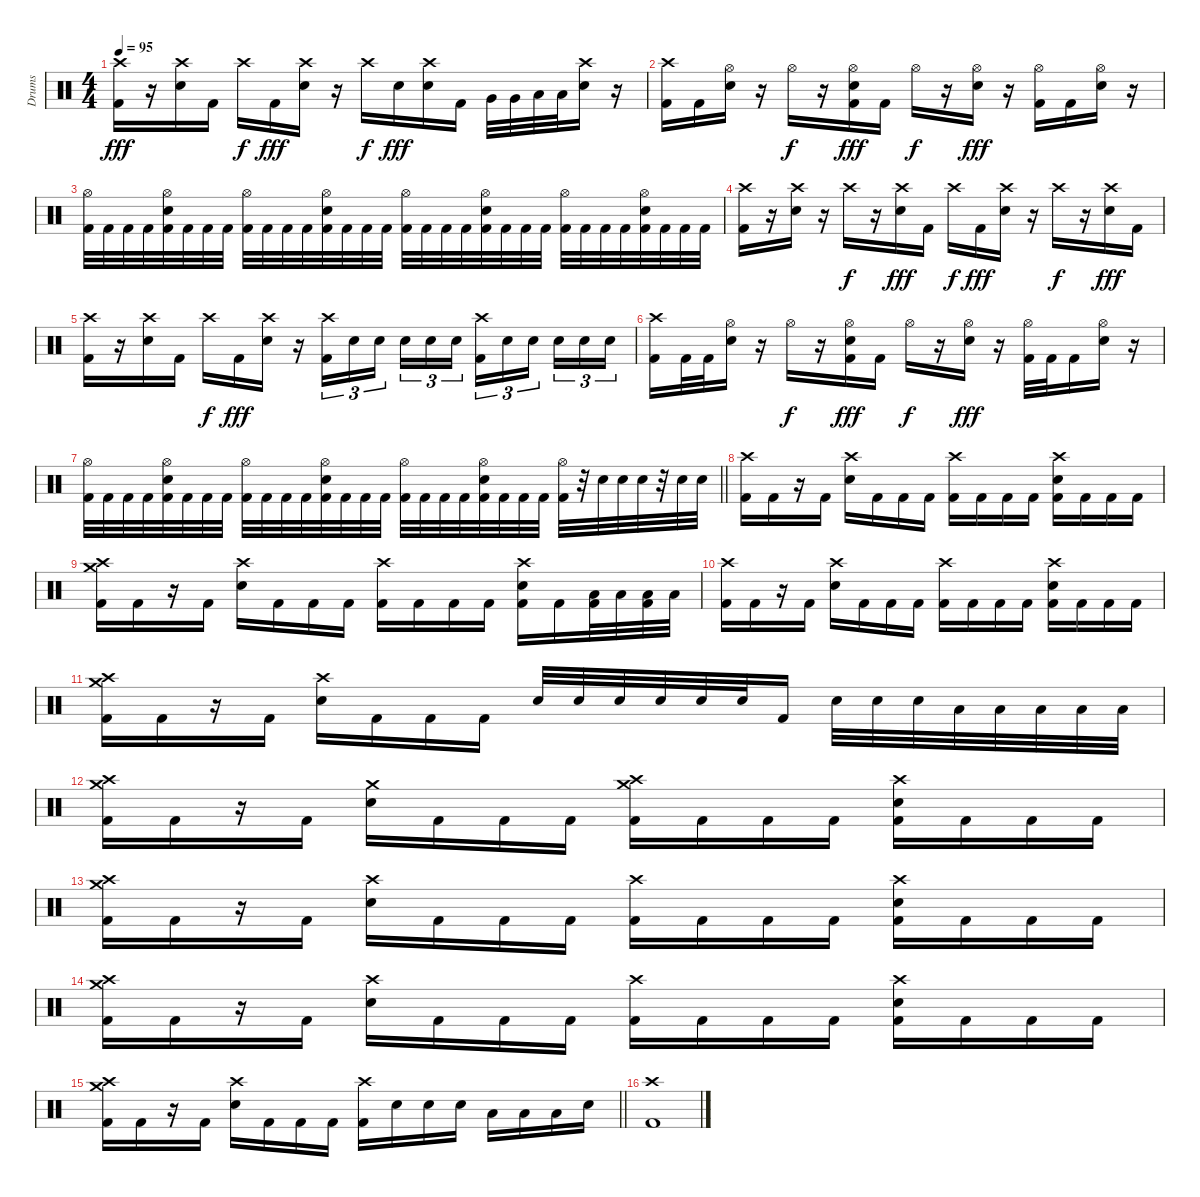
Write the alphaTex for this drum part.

\track ("Drums" "Drums") {instrument percussion}
\staff {score}
\articulation defaults
\ts (4 4)
\tempo 95
\clef neutral
\ks c
("Crash high (hit)" "Kick (hit) 2").16{dy fff} r.16 ("Crash high (hit)" "Electric Snare (hit)").16 "Kick (hit) 2".16 "Crash high (hit)".16{dy f} "Kick (hit) 2".16{dy fff} ("Crash high (hit)" "Electric Snare (hit)").16 r.16 "Crash high (hit)".16{dy f} "Electric Snare (hit)".16{dy fff} ("Crash high (hit)" "Electric Snare (hit)").16 "Kick (hit) 2".16 "Very Low Tom (hit)".32 "Very Low Tom (hit)".32 "Low Floor Tom (hit)".32 "Low Floor Tom (hit)".32 ("Crash high (hit)" "Electric Snare (hit)").16 r.16 |
("Crash high (hit)" "Kick (hit) 2").16 "Kick (hit) 2".16 ("Hi-Hat (open)" "Electric Snare (hit)").16 r.16 "Hi-Hat (open)".16{dy f} r.16 ("Hi-Hat (open)" "Electric Snare (hit)" "Kick (hit) 2").16{dy fff} "Kick (hit) 2".16 "Hi-Hat (open)".16{dy f} r.16 ("Hi-Hat (open)" "Electric Snare (hit)").16{dy fff} r.16 ("Hi-Hat (open)" "Kick (hit) 2").16 "Kick (hit) 2".16 ("Hi-Hat (open)" "Electric Snare (hit)").16 r.16 |
("Hi-Hat (open)" "Kick (hit) 2").32 "Kick (hit) 2".32 "Kick (hit) 2".32 "Kick (hit) 2".32 ("Hi-Hat (open)" "Electric Snare (hit)" "Kick (hit) 2").32 "Kick (hit) 2".32 "Kick (hit) 2".32 "Kick (hit) 2".32 ("Hi-Hat (open)" "Kick (hit) 2").32 "Kick (hit) 2".32 "Kick (hit) 2".32 "Kick (hit) 2".32 ("Hi-Hat (open)" "Electric Snare (hit)" "Kick (hit) 2").32 "Kick (hit) 2".32 "Kick (hit) 2".32 "Kick (hit) 2".32 ("Hi-Hat (open)" "Kick (hit) 2").32 "Kick (hit) 2".32 "Kick (hit) 2".32 "Kick (hit) 2".32 ("Hi-Hat (open)" "Electric Snare (hit)" "Kick (hit) 2").32 "Kick (hit) 2".32 "Kick (hit) 2".32 "Kick (hit) 2".32 ("Hi-Hat (open)" "Kick (hit) 2").32 "Kick (hit) 2".32 "Kick (hit) 2".32 "Kick (hit) 2".32 ("Hi-Hat (open)" "Electric Snare (hit)" "Kick (hit) 2").32 "Kick (hit) 2".32 "Kick (hit) 2".32 "Kick (hit) 2".32 |
("Crash high (hit)" "Kick (hit) 2").16 r.16 ("Crash high (hit)" "Electric Snare (hit)").16 r.16 "Crash high (hit)".16{dy f} r.16 ("Crash high (hit)" "Electric Snare (hit)").16{dy fff} "Kick (hit) 2".16 "Crash high (hit)".16{dy f} "Kick (hit) 2".16{dy fff} ("Crash high (hit)" "Electric Snare (hit)").16 r.16 "Crash high (hit)".16{dy f} r.16 ("Crash high (hit)" "Electric Snare (hit)").16{dy fff} "Kick (hit) 2".16 |
("Crash high (hit)" "Kick (hit) 2").16 r.16 ("Crash high (hit)" "Electric Snare (hit)").16 "Kick (hit) 2".16 "Crash high (hit)".16{dy f} "Kick (hit) 2".16{dy fff} ("Crash high (hit)" "Electric Snare (hit)").16 r.16 ("Crash high (hit)" "Kick (hit) 2").16{tu (3 2)} "Electric Snare (hit)".16{tu (3 2)} "Electric Snare (hit)".16{tu (3 2) beam splitsecondary} "Electric Snare (hit)".16{tu (3 2)} "Electric Snare (hit)".16{tu (3 2)} "Electric Snare (hit)".16{tu (3 2)} ("Crash high (hit)" "Kick (hit) 2").16{tu (3 2)} "Electric Snare (hit)".16{tu (3 2)} "Electric Snare (hit)".16{tu (3 2) beam splitsecondary} "Electric Snare (hit)".16{tu (3 2)} "Electric Snare (hit)".16{tu (3 2)} "Electric Snare (hit)".16{tu (3 2)} |
("Crash high (hit)" "Kick (hit) 2").16 "Kick (hit) 2".32 "Kick (hit) 2".32 ("Hi-Hat (open)" "Electric Snare (hit)").16 r.16 "Hi-Hat (open)".16{dy f} r.16 ("Hi-Hat (open)" "Electric Snare (hit)" "Kick (hit) 2").16{dy fff} "Kick (hit) 2".16 "Hi-Hat (open)".16{dy f} r.16 ("Hi-Hat (open)" "Electric Snare (hit)").16{dy fff} r.16 ("Hi-Hat (open)" "Kick (hit) 2").32 "Kick (hit) 2".32 "Kick (hit) 2".16 ("Hi-Hat (open)" "Electric Snare (hit)").16 r.16 |
\barLineRight lightlight
("Hi-Hat (open)" "Kick (hit) 2").32 "Kick (hit) 2".32 "Kick (hit) 2".32 "Kick (hit) 2".32 ("Hi-Hat (open)" "Electric Snare (hit)" "Kick (hit) 2").32 "Kick (hit) 2".32 "Kick (hit) 2".32 "Kick (hit) 2".32 ("Hi-Hat (open)" "Kick (hit) 2").32 "Kick (hit) 2".32 "Kick (hit) 2".32 "Kick (hit) 2".32 ("Hi-Hat (open)" "Electric Snare (hit)" "Kick (hit) 2").32 "Kick (hit) 2".32 "Kick (hit) 2".32 "Kick (hit) 2".32 ("Hi-Hat (open)" "Kick (hit) 2").32 "Kick (hit) 2".32 "Kick (hit) 2".32 "Kick (hit) 2".32 ("Hi-Hat (open)" "Electric Snare (hit)" "Kick (hit) 2").32 "Kick (hit) 2".32 "Kick (hit) 2".32 "Kick (hit) 2".32 ("Hi-Hat (open)" "Kick (hit) 2").32 r.32 "Electric Snare (hit)".32 "Electric Snare (hit)".32 "Electric Snare (hit)".32 r.32 "Electric Snare (hit)".32 "Electric Snare (hit)".32 |
\section ("" "")
("Crash high (hit)" "Kick (hit) 2").16 "Kick (hit) 2".16 r.16 "Kick (hit) 2".16 ("Crash high (hit)" "Electric Snare (hit)").16 "Kick (hit) 2".16 "Kick (hit) 2".16 "Kick (hit) 2".16 ("Crash high (hit)" "Kick (hit) 2").16 "Kick (hit) 2".16 "Kick (hit) 2".16 "Kick (hit) 2".16 ("Crash high (hit)" "Electric Snare (hit)" "Kick (hit) 2").16 "Kick (hit) 2".16 "Kick (hit) 2".16 "Kick (hit) 2".16 |
("Crash high (hit)" "Crash medium (hit)" "Kick (hit) 2").16 "Kick (hit) 2".16 r.16 "Kick (hit) 2".16 ("Crash high (hit)" "Electric Snare (hit)").16 "Kick (hit) 2".16 "Kick (hit) 2".16 "Kick (hit) 2".16 ("Crash high (hit)" "Kick (hit) 2").16 "Kick (hit) 2".16 "Kick (hit) 2".16 "Kick (hit) 2".16 ("Crash high (hit)" "Electric Snare (hit)" "Kick (hit) 2").16 "Kick (hit) 2".16 ("Low Tom (hit)" "Kick (hit) 2").32 "Low Tom (hit)".32 ("Low Tom (hit)" "Kick (hit) 2").32 "Low Floor Tom (hit)".32 |
("Crash high (hit)" "Kick (hit) 2").16 "Kick (hit) 2".16 r.16 "Kick (hit) 2".16 ("Crash high (hit)" "Electric Snare (hit)").16 "Kick (hit) 2".16 "Kick (hit) 2".16 "Kick (hit) 2".16 ("Crash high (hit)" "Kick (hit) 2").16 "Kick (hit) 2".16 "Kick (hit) 2".16 "Kick (hit) 2".16 ("Crash high (hit)" "Electric Snare (hit)" "Kick (hit) 2").16 "Kick (hit) 2".16 "Kick (hit) 2".16 "Kick (hit) 2".16 |
("Crash high (hit)" "Crash medium (hit)" "Kick (hit) 2").16 "Kick (hit) 2".16 r.16 "Kick (hit) 2".16 ("Crash high (hit)" "Electric Snare (hit)").16 "Kick (hit) 2".16 "Kick (hit) 2".16 "Kick (hit) 2".16 "Electric Snare (hit)".32 "Electric Snare (hit)".32 "Electric Snare (hit)".32 "Electric Snare (hit)".32 "Electric Snare (hit)".32 "Electric Snare (hit)".32 "Kick (hit) 2".16 "Electric Snare (hit)".32 "Electric Snare (hit)".32 "Electric Snare (hit)".32 "Low Tom (hit)".32 "Low Tom (hit)".32 "Low Tom (hit)".32 "Low Floor Tom (hit)".32 "Low Floor Tom (hit)".32 |
("Crash high (hit)" "Crash medium (hit)" "Kick (hit) 2").16 "Kick (hit) 2".16 r.16 "Kick (hit) 2".16 ("Crash medium (hit)" "Electric Snare (hit)").16 "Kick (hit) 2".16 "Kick (hit) 2".16 "Kick (hit) 2".16 ("Crash high (hit)" "Crash medium (hit)" "Kick (hit) 2").16 "Kick (hit) 2".16 "Kick (hit) 2".16 "Kick (hit) 2".16 ("Crash high (hit)" "Electric Snare (hit)" "Kick (hit) 2").16 "Kick (hit) 2".16 "Kick (hit) 2".16 "Kick (hit) 2".16 |
("Crash high (hit)" "Crash medium (hit)" "Kick (hit) 2").16 "Kick (hit) 2".16 r.16 "Kick (hit) 2".16 ("Crash high (hit)" "Electric Snare (hit)").16 "Kick (hit) 2".16 "Kick (hit) 2".16 "Kick (hit) 2".16 ("Crash high (hit)" "Kick (hit) 2").16 "Kick (hit) 2".16 "Kick (hit) 2".16 "Kick (hit) 2".16 ("Crash high (hit)" "Electric Snare (hit)" "Kick (hit) 2").16 "Kick (hit) 2".16 "Kick (hit) 2".16 "Kick (hit) 2".16 |
("Crash high (hit)" "Crash medium (hit)" "Kick (hit) 2").16 "Kick (hit) 2".16 r.16 "Kick (hit) 2".16 ("Crash high (hit)" "Electric Snare (hit)").16 "Kick (hit) 2".16 "Kick (hit) 2".16 "Kick (hit) 2".16 ("Crash high (hit)" "Kick (hit) 2").16 "Kick (hit) 2".16 "Kick (hit) 2".16 "Kick (hit) 2".16 ("Crash high (hit)" "Electric Snare (hit)" "Kick (hit) 2").16 "Kick (hit) 2".16 "Kick (hit) 2".16 "Kick (hit) 2".16 |
\barLineRight lightlight
("Crash high (hit)" "Crash medium (hit)" "Kick (hit) 2").16 "Kick (hit) 2".16 r.16 "Kick (hit) 2".16 ("Crash high (hit)" "Electric Snare (hit)").16 "Kick (hit) 2".16 "Kick (hit) 2".16 "Kick (hit) 2".16 ("Crash high (hit)" "Kick (hit) 2").16 "Electric Snare (hit)".16 "Electric Snare (hit)".16 "Electric Snare (hit)".16 "Low Tom (hit)".16 "Low Tom (hit)".16 "Low Floor Tom (hit)".16 "Electric Snare (hit)".16 |
\section ("" "")
("Crash high (hit)" "Kick (hit) 2").1
